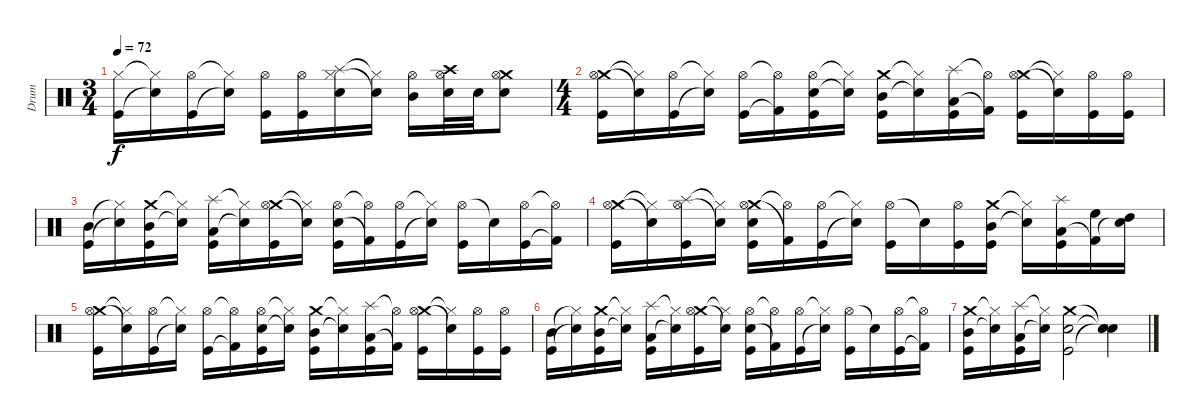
\track ("Drum" "Drum") {instrument percussion}
\staff {score}
\articulation defaults
\ts (3 4)
\tempo 72
\clef neutral
\ks c
("Hi-Hat (closed)" "Kick (hit)").16{dy f} ("Hi-Hat (closed)"{t} "Snare (hit)"{t}).16 ("Hi-Hat (open)" "Kick (hit)").16 ("Hi-Hat (closed)"{t} "Snare (hit)"{t}).16 ("Hi-Hat (open)" "Kick (hit)").16 ("Hi-Hat (open)" "Kick (hit)").16 ("Splash (hit)" "Hi-Hat (closed)" "Snare (hit) 2").16 ("Hi-Hat (closed)"{t} "Snare (hit)"{t}).16 ("Hi-Hat (open)" "Mid Tom (hit)").16 ("Crash high (hit)" "Hi-Hat (open)" "Snare (hit) 2").32 "Snare (hit) 2".32 ("Crash medium (hit)" "Hi-Hat (open)" "Snare (hit) 2").8 |
\ts (4 4)
("Crash medium (hit)" "Hi-Hat (open)" "Kick (hit)").16 ("Hi-Hat (closed)"{t} "Snare (hit)"{t}).16 ("Hi-Hat (open)" "Kick (hit)").16 ("Hi-Hat (closed)"{t} "Snare (hit)"{t}).16 ("Hi-Hat (open)" "Kick (hit)").16 ("Hi-Hat (open)"{t} "Kick (hit) 2"{t}).16 ("Hi-Hat (open)" "Snare (hit) 2" "Kick (hit)").16 ("Hi-Hat (closed)"{t} "Snare (hit)"{t}).16 ("Crash medium (hit)" "Mid Tom (hit)" "Kick (hit)").16 ("Hi-Hat (closed)"{t} "Snare (hit)"{t}).16 ("Splash (hit)" "Low Tom (hit)" "Kick (hit)").16 ("Hi-Hat (open)"{t} "Kick (hit) 2"{t}).16 ("Crash medium (hit)" "Hi-Hat (open)" "Kick (hit)").16 ("Hi-Hat (closed)"{t} "Snare (hit)"{t}).16 ("Hi-Hat (open)" "Kick (hit)").16 ("Hi-Hat (open)" "Kick (hit)").16 |
("Mid Tom (hit)" "Kick (hit)").16 ("Hi-Hat (closed)"{t} "Snare (hit)"{t}).16 ("Crash medium (hit)" "Mid Tom (hit)" "Kick (hit)").16 ("Hi-Hat (closed)"{t} "Snare (hit)"{t}).16 ("Splash (hit)" "Low Tom (hit)" "Kick (hit)").16 ("Hi-Hat (closed)"{t} "Snare (hit)"{t}).16 ("Crash medium (hit)" "Hi-Hat (open)" "Kick (hit)").16 ("Hi-Hat (closed)"{t} "Snare (hit)"{t}).16 ("Hi-Hat (open)" "Snare (hit) 2" "Kick (hit)").16 ("Hi-Hat (open)"{t} "Kick (hit) 2"{t}).16 ("Hi-Hat (open)" "Kick (hit)").16 ("Hi-Hat (closed)"{t} "Snare (hit)"{t}).16 ("Hi-Hat (open)" "Kick (hit)").16 "Snare (hit)"{t}.16 ("Hi-Hat (open)" "Kick (hit)").16 ("Hi-Hat (open)"{t} "Kick (hit) 2"{t}).16 |
("Crash medium (hit)" "Hi-Hat (open)" "Kick (hit)").16 ("Hi-Hat (closed)"{t} "Snare (hit)"{t}).16 ("Splash (hit)" "Hi-Hat (open)" "Kick (hit)").16 ("Hi-Hat (closed)"{t} "Snare (hit)"{t}).16 ("Crash medium (hit)" "Hi-Hat (open)" "Snare (hit) 2" "Kick (hit)").16 ("Hi-Hat (open)"{t} "Kick (hit) 2"{t}).16 ("Hi-Hat (open)" "Kick (hit)").16 ("Hi-Hat (closed)"{t} "Snare (hit)"{t}).16 ("Hi-Hat (open)" "Kick (hit)").16 "Snare (hit)"{t}.16 ("Hi-Hat (open)" "Kick (hit)").16 ("Crash medium (hit)" "Mid Tom (hit)" "Kick (hit)").16 ("Hi-Hat (closed)"{t} "Snare (hit)"{t}).16 ("Splash (hit)" "Low Tom (hit)" "Kick (hit)").16 ("High Floor Tom (hit)" "Kick (hit) 2"{t}).16 ("High Tom (hit)" "Snare (hit)"{t}).16 |
("Crash medium (hit)" "Hi-Hat (open)" "Kick (hit)").16 ("Hi-Hat (closed)"{t} "Snare (hit)"{t}).16 ("Hi-Hat (open)" "Kick (hit)").16 ("Hi-Hat (closed)"{t} "Snare (hit)"{t}).16 ("Hi-Hat (open)" "Kick (hit)").16 ("Hi-Hat (open)"{t} "Kick (hit) 2"{t}).16 ("Hi-Hat (open)" "Snare (hit) 2" "Kick (hit)").16 ("Hi-Hat (closed)"{t} "Snare (hit)"{t}).16 ("Crash medium (hit)" "Mid Tom (hit)" "Kick (hit)").16 ("Hi-Hat (closed)"{t} "Snare (hit)"{t}).16 ("Splash (hit)" "Low Tom (hit)" "Kick (hit)").16 ("Hi-Hat (open)"{t} "Kick (hit) 2"{t}).16 ("Crash medium (hit)" "Hi-Hat (open)" "Kick (hit)").16 ("Hi-Hat (closed)"{t} "Snare (hit)"{t}).16 ("Hi-Hat (open)" "Kick (hit)").16 ("Hi-Hat (open)" "Kick (hit)").16 |
("Mid Tom (hit)" "Kick (hit)").16 ("Hi-Hat (closed)"{t} "Snare (hit)"{t}).16 ("Crash medium (hit)" "Mid Tom (hit)" "Kick (hit)").16 ("Hi-Hat (closed)"{t} "Snare (hit)"{t}).16 ("Splash (hit)" "Low Tom (hit)" "Kick (hit)").16 ("Hi-Hat (closed)"{t} "Snare (hit)"{t}).16 ("Crash medium (hit)" "Hi-Hat (open)" "Kick (hit)").16 ("Hi-Hat (closed)"{t} "Snare (hit)"{t}).16 ("Hi-Hat (open)" "Snare (hit) 2" "Kick (hit)").16 ("Hi-Hat (open)"{t} "Kick (hit) 2"{t}).16 ("Hi-Hat (open)" "Kick (hit)").16 ("Hi-Hat (closed)"{t} "Snare (hit)"{t}).16 ("Hi-Hat (open)" "Kick (hit)").16 "Snare (hit)"{t}.16 ("Hi-Hat (open)" "Kick (hit)").16 ("Hi-Hat (open)"{t} "Kick (hit) 2"{t}).16 |
("Crash medium (hit)" "Mid Tom (hit)" "Kick (hit)").16 ("Hi-Hat (closed)"{t} "Snare (hit)"{t}).16 ("Splash (hit)" "Low Tom (hit)" "Kick (hit)").16 ("Hi-Hat (closed)"{t} "Snare (hit)"{t}).16 ("Crash medium (hit)" "Kick (hit)" "Snare (hit) 2").2 ("Snare (hit)"{t} "Snare (hit)"{t} "Snare (hit)"{t}).4
